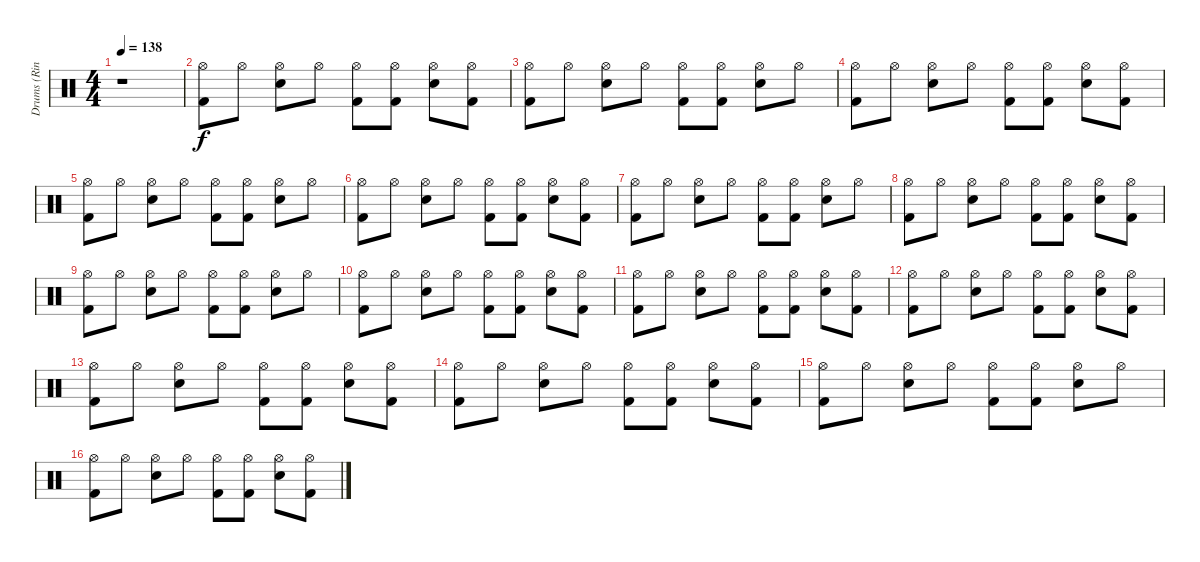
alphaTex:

\track ("Drums (Ringo Starr)" "Drums (Rin") {instrument percussion}
\staff {score}
\articulation defaults
\ts (4 4)
\tempo 138
\clef neutral
\ks c
r.1{dy f} |
("Hi-Hat (open)" "Kick (hit) 2").8 "Hi-Hat (open)".8 ("Hi-Hat (open)" "Snare (hit) 2").8 "Hi-Hat (open)".8 ("Hi-Hat (open)" "Kick (hit) 2").8 ("Hi-Hat (open)" "Kick (hit) 2").8 ("Hi-Hat (open)" "Snare (hit) 2").8 ("Hi-Hat (open)" "Kick (hit) 2").8 |
("Hi-Hat (open)" "Kick (hit) 2").8 "Hi-Hat (open)".8 ("Hi-Hat (open)" "Snare (hit) 2").8 "Hi-Hat (open)".8 ("Hi-Hat (open)" "Kick (hit) 2").8 ("Hi-Hat (open)" "Kick (hit) 2").8 ("Hi-Hat (open)" "Snare (hit) 2").8 "Hi-Hat (open)".8 |
("Hi-Hat (open)" "Kick (hit) 2").8 "Hi-Hat (open)".8 ("Hi-Hat (open)" "Snare (hit) 2").8 "Hi-Hat (open)".8 ("Hi-Hat (open)" "Kick (hit) 2").8 ("Hi-Hat (open)" "Kick (hit) 2").8 ("Hi-Hat (open)" "Snare (hit) 2").8 ("Hi-Hat (open)" "Kick (hit) 2").8 |
("Hi-Hat (open)" "Kick (hit) 2").8 "Hi-Hat (open)".8 ("Hi-Hat (open)" "Snare (hit) 2").8 "Hi-Hat (open)".8 ("Hi-Hat (open)" "Kick (hit) 2").8 ("Hi-Hat (open)" "Kick (hit) 2").8 ("Hi-Hat (open)" "Snare (hit) 2").8 "Hi-Hat (open)".8 |
("Hi-Hat (open)" "Kick (hit) 2").8 "Hi-Hat (open)".8 ("Hi-Hat (open)" "Snare (hit) 2").8 "Hi-Hat (open)".8 ("Hi-Hat (open)" "Kick (hit) 2").8 ("Hi-Hat (open)" "Kick (hit) 2").8 ("Hi-Hat (open)" "Snare (hit) 2").8 ("Hi-Hat (open)" "Kick (hit) 2").8 |
("Hi-Hat (open)" "Kick (hit) 2").8 "Hi-Hat (open)".8 ("Hi-Hat (open)" "Snare (hit) 2").8 "Hi-Hat (open)".8 ("Hi-Hat (open)" "Kick (hit) 2").8 ("Hi-Hat (open)" "Kick (hit) 2").8 ("Hi-Hat (open)" "Snare (hit) 2").8 "Hi-Hat (open)".8 |
("Hi-Hat (open)" "Kick (hit) 2").8 "Hi-Hat (open)".8 ("Hi-Hat (open)" "Snare (hit) 2").8 "Hi-Hat (open)".8 ("Hi-Hat (open)" "Kick (hit) 2").8 ("Hi-Hat (open)" "Kick (hit) 2").8 ("Hi-Hat (open)" "Snare (hit) 2").8 ("Hi-Hat (open)" "Kick (hit) 2").8 |
("Hi-Hat (open)" "Kick (hit) 2").8 "Hi-Hat (open)".8 ("Hi-Hat (open)" "Snare (hit) 2").8 "Hi-Hat (open)".8 ("Hi-Hat (open)" "Kick (hit) 2").8 ("Hi-Hat (open)" "Kick (hit) 2").8 ("Hi-Hat (open)" "Snare (hit) 2").8 "Hi-Hat (open)".8 |
("Hi-Hat (open)" "Kick (hit) 2").8 "Hi-Hat (open)".8 ("Hi-Hat (open)" "Snare (hit) 2").8 "Hi-Hat (open)".8 ("Hi-Hat (open)" "Kick (hit) 2").8 ("Hi-Hat (open)" "Kick (hit) 2").8 ("Hi-Hat (open)" "Snare (hit) 2").8 ("Hi-Hat (open)" "Kick (hit) 2").8 |
("Hi-Hat (open)" "Kick (hit) 2").8 "Hi-Hat (open)".8 ("Hi-Hat (open)" "Snare (hit) 2").8 "Hi-Hat (open)".8 ("Hi-Hat (open)" "Kick (hit) 2").8 ("Hi-Hat (open)" "Kick (hit) 2").8 ("Hi-Hat (open)" "Snare (hit) 2").8 ("Hi-Hat (open)" "Kick (hit) 2").8 |
("Hi-Hat (open)" "Kick (hit) 2").8 "Hi-Hat (open)".8 ("Hi-Hat (open)" "Snare (hit) 2").8 "Hi-Hat (open)".8 ("Hi-Hat (open)" "Kick (hit) 2").8 ("Hi-Hat (open)" "Kick (hit) 2").8 ("Hi-Hat (open)" "Snare (hit) 2").8 ("Hi-Hat (open)" "Kick (hit) 2").8 |
("Hi-Hat (open)" "Kick (hit) 2").8 "Hi-Hat (open)".8 ("Hi-Hat (open)" "Snare (hit) 2").8 "Hi-Hat (open)".8 ("Hi-Hat (open)" "Kick (hit) 2").8 ("Hi-Hat (open)" "Kick (hit) 2").8 ("Hi-Hat (open)" "Snare (hit) 2").8 ("Hi-Hat (open)" "Kick (hit) 2").8 |
("Hi-Hat (open)" "Kick (hit) 2").8 "Hi-Hat (open)".8 ("Hi-Hat (open)" "Snare (hit) 2").8 "Hi-Hat (open)".8 ("Hi-Hat (open)" "Kick (hit) 2").8 ("Hi-Hat (open)" "Kick (hit) 2").8 ("Hi-Hat (open)" "Snare (hit) 2").8 ("Hi-Hat (open)" "Kick (hit) 2").8 |
("Hi-Hat (open)" "Kick (hit) 2").8 "Hi-Hat (open)".8 ("Hi-Hat (open)" "Snare (hit) 2").8 "Hi-Hat (open)".8 ("Hi-Hat (open)" "Kick (hit) 2").8 ("Hi-Hat (open)" "Kick (hit) 2").8 ("Hi-Hat (open)" "Snare (hit) 2").8 "Hi-Hat (open)".8 |
("Hi-Hat (open)" "Kick (hit) 2").8 "Hi-Hat (open)".8 ("Hi-Hat (open)" "Snare (hit) 2").8 "Hi-Hat (open)".8 ("Hi-Hat (open)" "Kick (hit) 2").8 ("Hi-Hat (open)" "Kick (hit) 2").8 ("Hi-Hat (open)" "Snare (hit) 2").8 ("Hi-Hat (open)" "Kick (hit) 2").8
